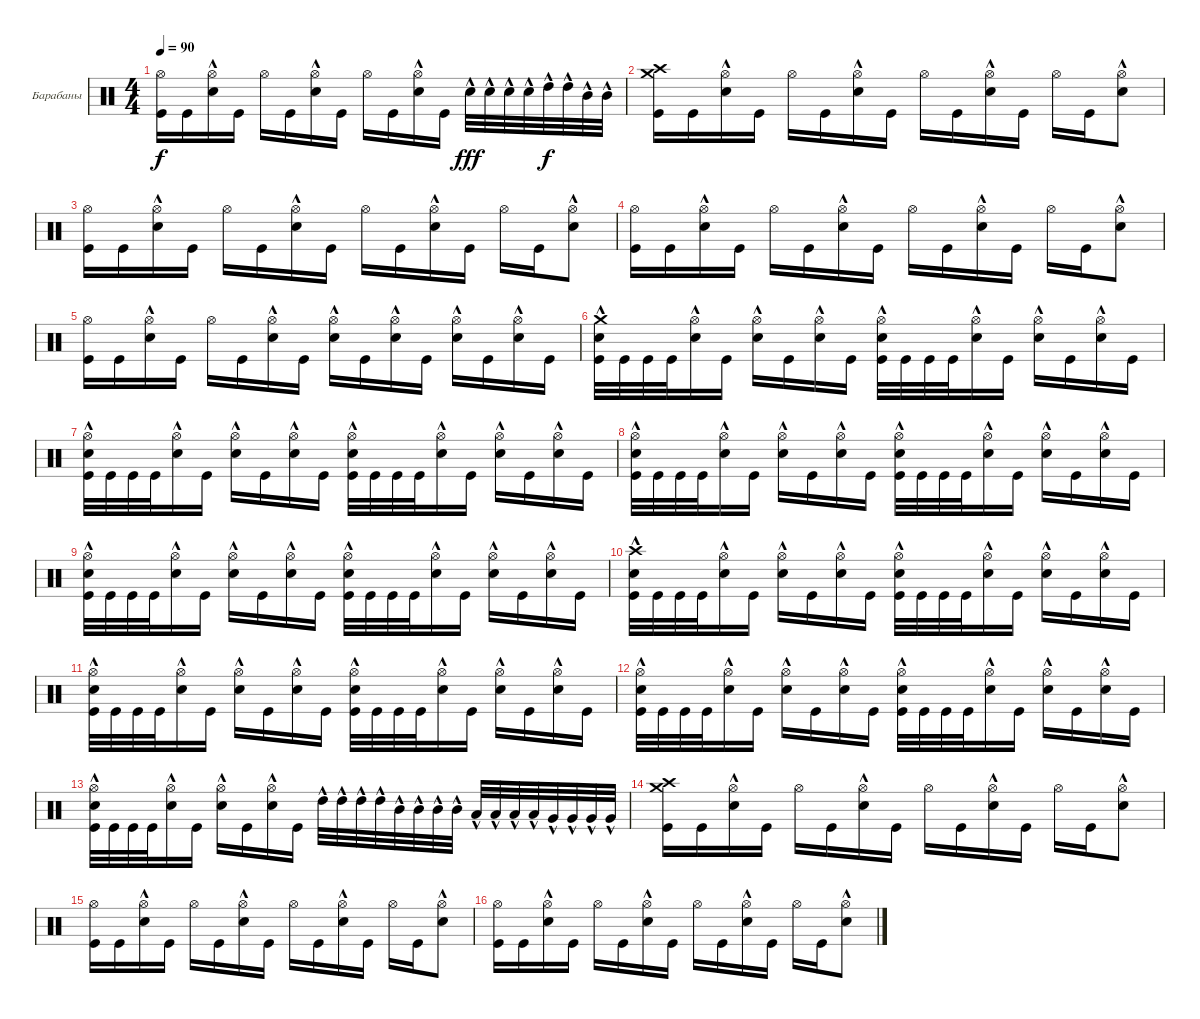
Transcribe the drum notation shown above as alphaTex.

\bracketExtendMode groupsimilarinstruments
\firstSystemTrackNameOrientation horizontal
\otherSystemsTrackNameOrientation horizontal
\track ("Ударные" "Барабаны") {instrument percussion}
\staff {score}
\articulation defaults
\ts (4 4)
\tempo 90
\clef neutral
\ks c
("Hi-Hat (open)" "Kick (hit)").16{dy f} "Kick (hit)".16 ("Hi-Hat (open)" "Snare (hit) 2"{hac}).16 "Kick (hit)".16 "Hi-Hat (open)".16 "Kick (hit)".16 ("Hi-Hat (open)" "Snare (hit) 2"{hac}).16 "Kick (hit)".16 "Hi-Hat (open)".16 "Kick (hit)".16 ("Hi-Hat (open)" "Snare (hit) 2"{hac}).16 "Kick (hit)".16 "Snare (hit) 2"{hac}.32{dy fff} "Snare (hit) 2"{hac}.32 "Snare (hit) 2"{hac}.32 "Snare (hit) 2"{hac}.32 "High Tom (hit)"{hac}.32{dy f} "High Tom (hit)"{hac}.32 "Mid Tom (hit)"{hac}.32 "Mid Tom (hit)"{hac}.32 |
("Crash medium (hit)" "Kick (hit)" "Crash high (hit)").16 "Kick (hit)".16 ("Hi-Hat (open)" "Snare (hit) 2"{hac}).16 "Kick (hit)".16 "Hi-Hat (open)".16 "Kick (hit)".16 ("Hi-Hat (open)" "Snare (hit) 2"{hac}).16 "Kick (hit)".16 "Hi-Hat (open)".16 "Kick (hit)".16 ("Hi-Hat (open)" "Snare (hit) 2"{hac}).16 "Kick (hit)".16 "Hi-Hat (open)".16 "Kick (hit)".16 ("Hi-Hat (open)" "Snare (hit) 2"{hac}).8 |
("Hi-Hat (open)" "Kick (hit)").16 "Kick (hit)".16 ("Hi-Hat (open)" "Snare (hit) 2"{hac}).16 "Kick (hit)".16 "Hi-Hat (open)".16 "Kick (hit)".16 ("Hi-Hat (open)" "Snare (hit) 2"{hac}).16 "Kick (hit)".16 "Hi-Hat (open)".16 "Kick (hit)".16 ("Hi-Hat (open)" "Snare (hit) 2"{hac}).16 "Kick (hit)".16 "Hi-Hat (open)".16 "Kick (hit)".16 ("Hi-Hat (open)" "Snare (hit) 2"{hac}).8 |
("Hi-Hat (open)" "Kick (hit)").16 "Kick (hit)".16 ("Hi-Hat (open)" "Snare (hit) 2"{hac}).16 "Kick (hit)".16 "Hi-Hat (open)".16 "Kick (hit)".16 ("Hi-Hat (open)" "Snare (hit) 2"{hac}).16 "Kick (hit)".16 "Hi-Hat (open)".16 "Kick (hit)".16 ("Hi-Hat (open)" "Snare (hit) 2"{hac}).16 "Kick (hit)".16 "Hi-Hat (open)".16 "Kick (hit)".16 ("Hi-Hat (open)" "Snare (hit) 2"{hac}).8 |
("Hi-Hat (open)" "Kick (hit)").16 "Kick (hit)".16 ("Hi-Hat (open)" "Snare (hit) 2"{hac}).16 "Kick (hit)".16 "Hi-Hat (open)".16 "Kick (hit)".16 ("Hi-Hat (open)" "Snare (hit) 2"{hac}).16 "Kick (hit)".16 ("Hi-Hat (open)" "Snare (hit) 2"{hac}).16 "Kick (hit)".16 ("Hi-Hat (open)" "Snare (hit) 2"{hac}).16 "Kick (hit)".16 ("Hi-Hat (open)" "Snare (hit) 2"{hac}).16 "Kick (hit)".16 ("Hi-Hat (open)" "Snare (hit) 2"{hac}).16 "Kick (hit)".16 |
("Crash medium (hit)" "Kick (hit)" "Snare (hit) 2"{hac}).32 "Kick (hit)".32 "Kick (hit)".32 "Kick (hit)".32 ("Hi-Hat (open)" "Snare (hit) 2"{hac}).16 "Kick (hit)".16 ("Hi-Hat (open)" "Snare (hit) 2"{hac}).16 "Kick (hit)".16 ("Hi-Hat (open)" "Snare (hit) 2"{hac}).16 "Kick (hit)".16 ("Hi-Hat (open)" "Kick (hit)" "Snare (hit) 2"{hac}).32 "Kick (hit)".32 "Kick (hit)".32 "Kick (hit)".32 ("Hi-Hat (open)" "Snare (hit) 2"{hac}).16 "Kick (hit)".16 ("Hi-Hat (open)" "Snare (hit) 2"{hac}).16 "Kick (hit)".16 ("Hi-Hat (open)" "Snare (hit) 2"{hac}).16 "Kick (hit)".16 |
("Hi-Hat (open)" "Kick (hit)" "Snare (hit) 2"{hac}).32 "Kick (hit)".32 "Kick (hit)".32 "Kick (hit)".32 ("Hi-Hat (open)" "Snare (hit) 2"{hac}).16 "Kick (hit)".16 ("Hi-Hat (open)" "Snare (hit) 2"{hac}).16 "Kick (hit)".16 ("Hi-Hat (open)" "Snare (hit) 2"{hac}).16 "Kick (hit)".16 ("Hi-Hat (open)" "Kick (hit)" "Snare (hit) 2"{hac}).32 "Kick (hit)".32 "Kick (hit)".32 "Kick (hit)".32 ("Hi-Hat (open)" "Snare (hit) 2"{hac}).16 "Kick (hit)".16 ("Hi-Hat (open)" "Snare (hit) 2"{hac}).16 "Kick (hit)".16 ("Hi-Hat (open)" "Snare (hit) 2"{hac}).16 "Kick (hit)".16 |
("Hi-Hat (open)" "Kick (hit)" "Snare (hit) 2"{hac}).32 "Kick (hit)".32 "Kick (hit)".32 "Kick (hit)".32 ("Hi-Hat (open)" "Snare (hit) 2"{hac}).16 "Kick (hit)".16 ("Hi-Hat (open)" "Snare (hit) 2"{hac}).16 "Kick (hit)".16 ("Hi-Hat (open)" "Snare (hit) 2"{hac}).16 "Kick (hit)".16 ("Hi-Hat (open)" "Kick (hit)" "Snare (hit) 2"{hac}).32 "Kick (hit)".32 "Kick (hit)".32 "Kick (hit)".32 ("Hi-Hat (open)" "Snare (hit) 2"{hac}).16 "Kick (hit)".16 ("Hi-Hat (open)" "Snare (hit) 2"{hac}).16 "Kick (hit)".16 ("Hi-Hat (open)" "Snare (hit) 2"{hac}).16 "Kick (hit)".16 |
("Hi-Hat (open)" "Kick (hit)" "Snare (hit) 2"{hac}).32 "Kick (hit)".32 "Kick (hit)".32 "Kick (hit)".32 ("Hi-Hat (open)" "Snare (hit) 2"{hac}).16 "Kick (hit)".16 ("Hi-Hat (open)" "Snare (hit) 2"{hac}).16 "Kick (hit)".16 ("Hi-Hat (open)" "Snare (hit) 2"{hac}).16 "Kick (hit)".16 ("Hi-Hat (open)" "Kick (hit)" "Snare (hit) 2"{hac}).32 "Kick (hit)".32 "Kick (hit)".32 "Kick (hit)".32 ("Hi-Hat (open)" "Snare (hit) 2"{hac}).16 "Kick (hit)".16 ("Hi-Hat (open)" "Snare (hit) 2"{hac}).16 "Kick (hit)".16 ("Hi-Hat (open)" "Snare (hit) 2"{hac}).16 "Kick (hit)".16 |
("Crash high (hit)" "Kick (hit)" "Snare (hit) 2"{hac}).32 "Kick (hit)".32 "Kick (hit)".32 "Kick (hit)".32 ("Hi-Hat (open)" "Snare (hit) 2"{hac}).16 "Kick (hit)".16 ("Hi-Hat (open)" "Snare (hit) 2"{hac}).16 "Kick (hit)".16 ("Hi-Hat (open)" "Snare (hit) 2"{hac}).16 "Kick (hit)".16 ("Hi-Hat (open)" "Kick (hit)" "Snare (hit) 2"{hac}).32 "Kick (hit)".32 "Kick (hit)".32 "Kick (hit)".32 ("Hi-Hat (open)" "Snare (hit) 2"{hac}).16 "Kick (hit)".16 ("Hi-Hat (open)" "Snare (hit) 2"{hac}).16 "Kick (hit)".16 ("Hi-Hat (open)" "Snare (hit) 2"{hac}).16 "Kick (hit)".16 |
("Hi-Hat (open)" "Kick (hit)" "Snare (hit) 2"{hac}).32 "Kick (hit)".32 "Kick (hit)".32 "Kick (hit)".32 ("Hi-Hat (open)" "Snare (hit) 2"{hac}).16 "Kick (hit)".16 ("Hi-Hat (open)" "Snare (hit) 2"{hac}).16 "Kick (hit)".16 ("Hi-Hat (open)" "Snare (hit) 2"{hac}).16 "Kick (hit)".16 ("Hi-Hat (open)" "Kick (hit)" "Snare (hit) 2"{hac}).32 "Kick (hit)".32 "Kick (hit)".32 "Kick (hit)".32 ("Hi-Hat (open)" "Snare (hit) 2"{hac}).16 "Kick (hit)".16 ("Hi-Hat (open)" "Snare (hit) 2"{hac}).16 "Kick (hit)".16 ("Hi-Hat (open)" "Snare (hit) 2"{hac}).16 "Kick (hit)".16 |
("Hi-Hat (open)" "Kick (hit)" "Snare (hit) 2"{hac}).32 "Kick (hit)".32 "Kick (hit)".32 "Kick (hit)".32 ("Hi-Hat (open)" "Snare (hit) 2"{hac}).16 "Kick (hit)".16 ("Hi-Hat (open)" "Snare (hit) 2"{hac}).16 "Kick (hit)".16 ("Hi-Hat (open)" "Snare (hit) 2"{hac}).16 "Kick (hit)".16 ("Hi-Hat (open)" "Kick (hit)" "Snare (hit) 2"{hac}).32 "Kick (hit)".32 "Kick (hit)".32 "Kick (hit)".32 ("Hi-Hat (open)" "Snare (hit) 2"{hac}).16 "Kick (hit)".16 ("Hi-Hat (open)" "Snare (hit) 2"{hac}).16 "Kick (hit)".16 ("Hi-Hat (open)" "Snare (hit) 2"{hac}).16 "Kick (hit)".16 |
("Hi-Hat (open)" "Kick (hit)" "Snare (hit) 2"{hac}).32 "Kick (hit)".32 "Kick (hit)".32 "Kick (hit)".32 ("Hi-Hat (open)" "Snare (hit) 2"{hac}).16 "Kick (hit)".16 ("Hi-Hat (open)" "Snare (hit) 2"{hac}).16 "Kick (hit)".16 ("Hi-Hat (open)" "Snare (hit) 2"{hac}).16 "Kick (hit)".16 "High Tom (hit)"{hac}.32 "High Tom (hit)"{hac}.32 "High Tom (hit)"{hac}.32 "High Tom (hit)"{hac}.32 "Mid Tom (hit)"{hac}.32 "Mid Tom (hit)"{hac}.32 "Mid Tom (hit)"{hac}.32 "Mid Tom (hit)"{hac}.32 "Low Tom (hit)"{hac}.32 "Low Tom (hit)"{hac}.32 "Low Tom (hit)"{hac}.32 "Low Tom (hit)"{hac}.32 "Very Low Tom (hit)"{hac}.32 "Very Low Tom (hit)"{hac}.32 "Very Low Tom (hit)"{hac}.32 "Very Low Tom (hit)"{hac}.32 |
("Crash medium (hit)" "Kick (hit)" "Crash high (hit)").16 "Kick (hit)".16 ("Hi-Hat (open)" "Snare (hit) 2"{hac}).16 "Kick (hit)".16 "Hi-Hat (open)".16 "Kick (hit)".16 ("Hi-Hat (open)" "Snare (hit) 2"{hac}).16 "Kick (hit)".16 "Hi-Hat (open)".16 "Kick (hit)".16 ("Hi-Hat (open)" "Snare (hit) 2"{hac}).16 "Kick (hit)".16 "Hi-Hat (open)".16 "Kick (hit)".16 ("Hi-Hat (open)" "Snare (hit) 2"{hac}).8 |
("Hi-Hat (open)" "Kick (hit)").16 "Kick (hit)".16 ("Hi-Hat (open)" "Snare (hit) 2"{hac}).16 "Kick (hit)".16 "Hi-Hat (open)".16 "Kick (hit)".16 ("Hi-Hat (open)" "Snare (hit) 2"{hac}).16 "Kick (hit)".16 "Hi-Hat (open)".16 "Kick (hit)".16 ("Hi-Hat (open)" "Snare (hit) 2"{hac}).16 "Kick (hit)".16 "Hi-Hat (open)".16 "Kick (hit)".16 ("Hi-Hat (open)" "Snare (hit) 2"{hac}).8 |
("Hi-Hat (open)" "Kick (hit)").16 "Kick (hit)".16 ("Hi-Hat (open)" "Snare (hit) 2"{hac}).16 "Kick (hit)".16 "Hi-Hat (open)".16 "Kick (hit)".16 ("Hi-Hat (open)" "Snare (hit) 2"{hac}).16 "Kick (hit)".16 "Hi-Hat (open)".16 "Kick (hit)".16 ("Hi-Hat (open)" "Snare (hit) 2"{hac}).16 "Kick (hit)".16 "Hi-Hat (open)".16 "Kick (hit)".16 ("Hi-Hat (open)" "Snare (hit) 2"{hac}).8
